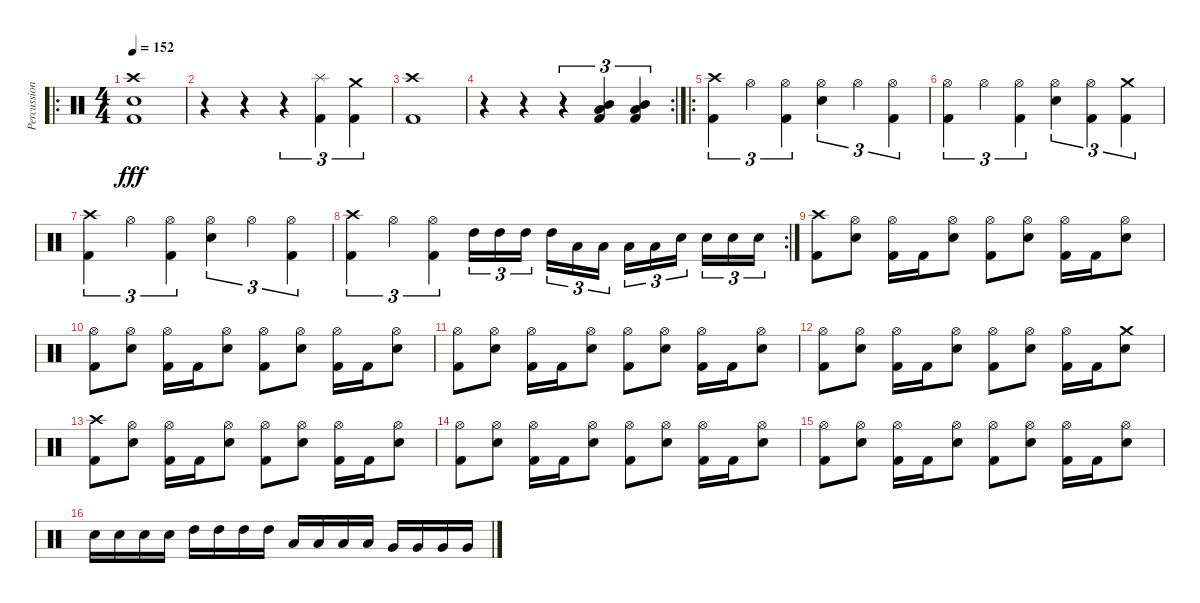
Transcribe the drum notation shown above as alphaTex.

\track ("Percussion" "Percussion") {instrument percussion}
\staff {score}
\articulation defaults
\ro
\ts (4 4)
\tempo 152
\clef neutral
\ks c
("Crash high (hit)" "Snare (hit) 2" "Kick (hit) 2").1{dy fff} |
r.4 r.4 r.4{tu (3 2)} ("Kick (hit) 2" "Splash (hit)").4{tu (3 2)} ("Kick (hit) 2" "Crash medium (hit)").4{tu (3 2)} |
("Kick (hit) 2" "Crash high (hit)").1 |
\rc 2
r.4 r.4 r.4{tu (3 2)} ("Mid Tom (hit)" "Low Tom (hit)" "Kick (hit) 2").4{tu (3 2)} ("Mid Tom (hit)" "Low Tom (hit)" "Kick (hit) 2").4{tu (3 2)} |
\ro
("Crash high (hit)" "Kick (hit) 2").4{tu (3 2)} "Hi-Hat (open)".4{tu (3 2)} ("Hi-Hat (open)" "Kick (hit) 2").4{tu (3 2)} ("Hi-Hat (open)" "Snare (hit) 2").4{tu (3 2)} "Hi-Hat (open)".4{tu (3 2)} ("Hi-Hat (open)" "Kick (hit) 2").4{tu (3 2)} |
("Hi-Hat (open)" "Kick (hit) 2").4{tu (3 2)} "Hi-Hat (open)".4{tu (3 2)} ("Hi-Hat (open)" "Kick (hit) 2").4{tu (3 2)} ("Hi-Hat (open)" "Snare (hit) 2").4{tu (3 2)} ("Hi-Hat (open)" "Kick (hit) 2").4{tu (3 2)} ("Crash medium (hit)" "Kick (hit) 2").4{tu (3 2)} |
("Crash high (hit)" "Kick (hit) 2").4{tu (3 2)} "Hi-Hat (open)".4{tu (3 2)} ("Hi-Hat (open)" "Kick (hit) 2").4{tu (3 2)} ("Hi-Hat (open)" "Snare (hit) 2").4{tu (3 2)} "Hi-Hat (open)".4{tu (3 2)} ("Hi-Hat (open)" "Kick (hit) 2").4{tu (3 2)} |
\rc 2
("Crash high (hit)" "Kick (hit) 2").4{tu (3 2)} "Hi-Hat (open)".4{tu (3 2)} ("Hi-Hat (open)" "Kick (hit) 2").4{tu (3 2)} "High Tom (hit)".16{tu (3 2)} "High Tom (hit)".16{tu (3 2)} "High Tom (hit)".16{tu (3 2)} "High Tom (hit)".16{tu (3 2)} "Low Tom (hit)".16{tu (3 2)} "Low Tom (hit)".16{tu (3 2)} "Low Tom (hit)".16{tu (3 2)} "Low Tom (hit)".16{tu (3 2)} "Snare (hit) 2".16{tu (3 2)} "Snare (hit) 2".16{tu (3 2)} "Snare (hit) 2".16{tu (3 2)} "Snare (hit) 2".16{tu (3 2)} |
("Crash high (hit)" "Kick (hit) 2").8 ("Hi-Hat (open)" "Snare (hit) 2").8 ("Hi-Hat (open)" "Kick (hit) 2").16 "Kick (hit) 2".16 ("Hi-Hat (open)" "Snare (hit) 2").8 ("Hi-Hat (open)" "Kick (hit) 2").8 ("Hi-Hat (open)" "Snare (hit) 2").8 ("Hi-Hat (open)" "Kick (hit) 2").16 "Kick (hit) 2".16 ("Hi-Hat (open)" "Snare (hit) 2").8 |
("Hi-Hat (open)" "Kick (hit) 2").8 ("Hi-Hat (open)" "Snare (hit) 2").8 ("Hi-Hat (open)" "Kick (hit) 2").16 "Kick (hit) 2".16 ("Hi-Hat (open)" "Snare (hit) 2").8 ("Hi-Hat (open)" "Kick (hit) 2").8 ("Hi-Hat (open)" "Snare (hit) 2").8 ("Hi-Hat (open)" "Kick (hit) 2").16 "Kick (hit) 2".16 ("Hi-Hat (open)" "Snare (hit) 2").8 |
("Hi-Hat (open)" "Kick (hit) 2").8 ("Hi-Hat (open)" "Snare (hit) 2").8 ("Hi-Hat (open)" "Kick (hit) 2").16 "Kick (hit) 2".16 ("Hi-Hat (open)" "Snare (hit) 2").8 ("Hi-Hat (open)" "Kick (hit) 2").8 ("Hi-Hat (open)" "Snare (hit) 2").8 ("Hi-Hat (open)" "Kick (hit) 2").16 "Kick (hit) 2".16 ("Hi-Hat (open)" "Snare (hit) 2").8 |
("Hi-Hat (open)" "Kick (hit) 2").8 ("Hi-Hat (open)" "Snare (hit) 2").8 ("Hi-Hat (open)" "Kick (hit) 2").16 "Kick (hit) 2".16 ("Hi-Hat (open)" "Snare (hit) 2").8 ("Hi-Hat (open)" "Kick (hit) 2").8 ("Hi-Hat (open)" "Snare (hit) 2").8 ("Hi-Hat (open)" "Kick (hit) 2").16 "Kick (hit) 2".16 ("Crash medium (hit)" "Snare (hit) 2").8 |
("Crash high (hit)" "Kick (hit) 2").8 ("Hi-Hat (open)" "Snare (hit) 2").8 ("Hi-Hat (open)" "Kick (hit) 2").16 "Kick (hit) 2".16 ("Hi-Hat (open)" "Snare (hit) 2").8 ("Hi-Hat (open)" "Kick (hit) 2").8 ("Hi-Hat (open)" "Snare (hit) 2").8 ("Hi-Hat (open)" "Kick (hit) 2").16 "Kick (hit) 2".16 ("Hi-Hat (open)" "Snare (hit) 2").8 |
("Hi-Hat (open)" "Kick (hit) 2").8 ("Hi-Hat (open)" "Snare (hit) 2").8 ("Hi-Hat (open)" "Kick (hit) 2").16 "Kick (hit) 2".16 ("Hi-Hat (open)" "Snare (hit) 2").8 ("Hi-Hat (open)" "Kick (hit) 2").8 ("Hi-Hat (open)" "Snare (hit) 2").8 ("Hi-Hat (open)" "Kick (hit) 2").16 "Kick (hit) 2".16 ("Hi-Hat (open)" "Snare (hit) 2").8 |
("Hi-Hat (open)" "Kick (hit) 2").8 ("Hi-Hat (open)" "Snare (hit) 2").8 ("Hi-Hat (open)" "Kick (hit) 2").16 "Kick (hit) 2".16 ("Hi-Hat (open)" "Snare (hit) 2").8 ("Hi-Hat (open)" "Kick (hit) 2").8 ("Hi-Hat (open)" "Snare (hit) 2").8 ("Hi-Hat (open)" "Kick (hit) 2").16 "Kick (hit) 2".16 ("Hi-Hat (open)" "Snare (hit) 2").8 |
"Snare (hit) 2".16 "Snare (hit) 2".16 "Snare (hit) 2".16 "Snare (hit) 2".16 "High Tom (hit)".16 "High Tom (hit)".16 "High Tom (hit)".16 "High Tom (hit)".16 "Low Tom (hit)".16 "Low Tom (hit)".16 "Low Tom (hit)".16 "Low Tom (hit)".16 "Very Low Tom (hit)".16 "Very Low Tom (hit)".16 "Very Low Tom (hit)".16 "Very Low Tom (hit)".16
